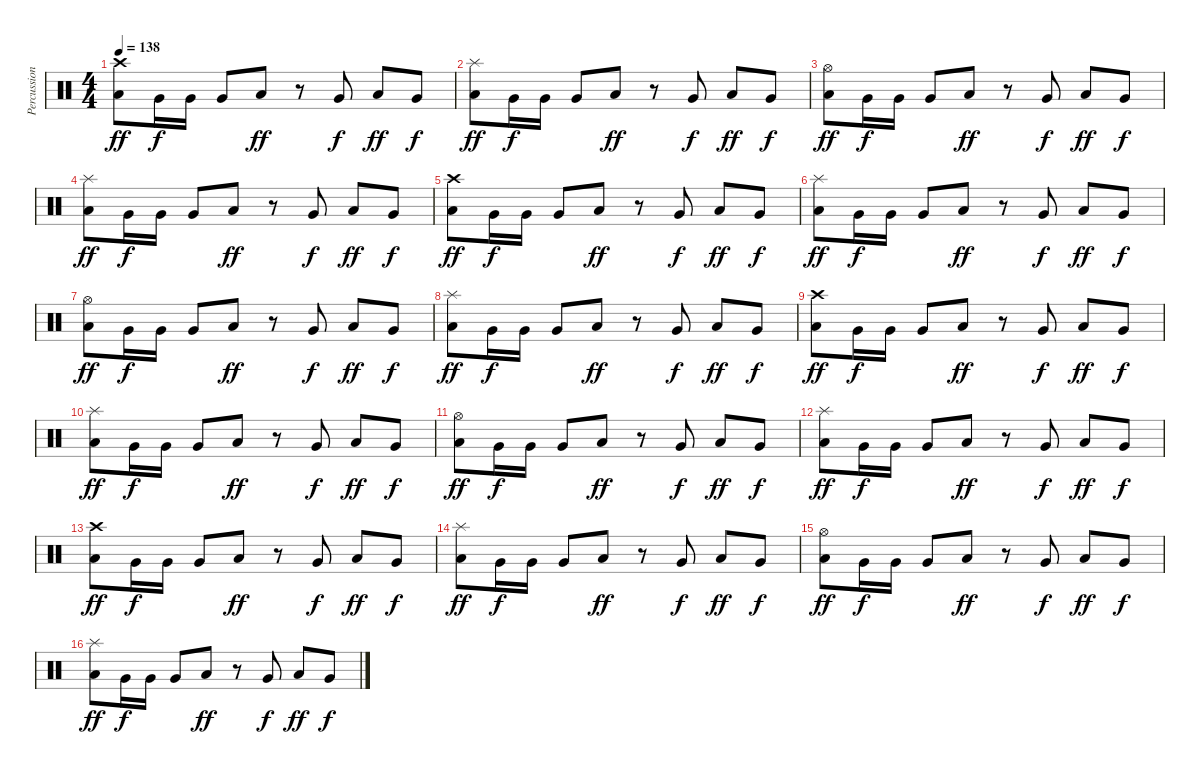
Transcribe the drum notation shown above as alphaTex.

\track ("Percussion" "Percussion") {instrument percussion}
\staff {score}
\articulation defaults
\ts (4 4)
\tempo 138
\clef neutral
\ks c
("Crash high (hit)" "Low Tom (hit)").8{dy ff} "Very Low Tom (hit)".16{dy f} "Very Low Tom (hit)".16 "Very Low Tom (hit)".8 "Low Tom (hit)".8{dy ff} r.8 "Very Low Tom (hit)".8{dy f} "Low Tom (hit)".8{dy ff} "Very Low Tom (hit)".8{dy f} |
("Splash (hit)" "Low Tom (hit)").8{dy ff} "Very Low Tom (hit)".16{dy f} "Very Low Tom (hit)".16 "Very Low Tom (hit)".8 "Low Tom (hit)".8{dy ff} r.8 "Very Low Tom (hit)".8{dy f} "Low Tom (hit)".8{dy ff} "Very Low Tom (hit)".8{dy f} |
("Hi-Hat (open)" "Low Tom (hit)").8{dy ff} "Very Low Tom (hit)".16{dy f} "Very Low Tom (hit)".16 "Very Low Tom (hit)".8 "Low Tom (hit)".8{dy ff} r.8 "Very Low Tom (hit)".8{dy f} "Low Tom (hit)".8{dy ff} "Very Low Tom (hit)".8{dy f} |
("Splash (hit)" "Low Tom (hit)").8{dy ff} "Very Low Tom (hit)".16{dy f} "Very Low Tom (hit)".16 "Very Low Tom (hit)".8 "Low Tom (hit)".8{dy ff} r.8 "Very Low Tom (hit)".8{dy f} "Low Tom (hit)".8{dy ff} "Very Low Tom (hit)".8{dy f} |
("Crash high (hit)" "Low Tom (hit)").8{dy ff} "Very Low Tom (hit)".16{dy f} "Very Low Tom (hit)".16 "Very Low Tom (hit)".8 "Low Tom (hit)".8{dy ff} r.8 "Very Low Tom (hit)".8{dy f} "Low Tom (hit)".8{dy ff} "Very Low Tom (hit)".8{dy f} |
("Splash (hit)" "Low Tom (hit)").8{dy ff} "Very Low Tom (hit)".16{dy f} "Very Low Tom (hit)".16 "Very Low Tom (hit)".8 "Low Tom (hit)".8{dy ff} r.8 "Very Low Tom (hit)".8{dy f} "Low Tom (hit)".8{dy ff} "Very Low Tom (hit)".8{dy f} |
("Hi-Hat (open)" "Low Tom (hit)").8{dy ff} "Very Low Tom (hit)".16{dy f} "Very Low Tom (hit)".16 "Very Low Tom (hit)".8 "Low Tom (hit)".8{dy ff} r.8 "Very Low Tom (hit)".8{dy f} "Low Tom (hit)".8{dy ff} "Very Low Tom (hit)".8{dy f} |
("Splash (hit)" "Low Tom (hit)").8{dy ff} "Very Low Tom (hit)".16{dy f} "Very Low Tom (hit)".16 "Very Low Tom (hit)".8 "Low Tom (hit)".8{dy ff} r.8 "Very Low Tom (hit)".8{dy f} "Low Tom (hit)".8{dy ff} "Very Low Tom (hit)".8{dy f} |
("Crash high (hit)" "Low Tom (hit)").8{dy ff} "Very Low Tom (hit)".16{dy f} "Very Low Tom (hit)".16 "Very Low Tom (hit)".8 "Low Tom (hit)".8{dy ff} r.8 "Very Low Tom (hit)".8{dy f} "Low Tom (hit)".8{dy ff} "Very Low Tom (hit)".8{dy f} |
("Splash (hit)" "Low Tom (hit)").8{dy ff} "Very Low Tom (hit)".16{dy f} "Very Low Tom (hit)".16 "Very Low Tom (hit)".8 "Low Tom (hit)".8{dy ff} r.8 "Very Low Tom (hit)".8{dy f} "Low Tom (hit)".8{dy ff} "Very Low Tom (hit)".8{dy f} |
("Hi-Hat (open)" "Low Tom (hit)").8{dy ff} "Very Low Tom (hit)".16{dy f} "Very Low Tom (hit)".16 "Very Low Tom (hit)".8 "Low Tom (hit)".8{dy ff} r.8 "Very Low Tom (hit)".8{dy f} "Low Tom (hit)".8{dy ff} "Very Low Tom (hit)".8{dy f} |
("Splash (hit)" "Low Tom (hit)").8{dy ff} "Very Low Tom (hit)".16{dy f} "Very Low Tom (hit)".16 "Very Low Tom (hit)".8 "Low Tom (hit)".8{dy ff} r.8 "Very Low Tom (hit)".8{dy f} "Low Tom (hit)".8{dy ff} "Very Low Tom (hit)".8{dy f} |
("Crash high (hit)" "Low Tom (hit)").8{dy ff} "Very Low Tom (hit)".16{dy f} "Very Low Tom (hit)".16 "Very Low Tom (hit)".8 "Low Tom (hit)".8{dy ff} r.8 "Very Low Tom (hit)".8{dy f} "Low Tom (hit)".8{dy ff} "Very Low Tom (hit)".8{dy f} |
("Splash (hit)" "Low Tom (hit)").8{dy ff} "Very Low Tom (hit)".16{dy f} "Very Low Tom (hit)".16 "Very Low Tom (hit)".8 "Low Tom (hit)".8{dy ff} r.8 "Very Low Tom (hit)".8{dy f} "Low Tom (hit)".8{dy ff} "Very Low Tom (hit)".8{dy f} |
("Hi-Hat (open)" "Low Tom (hit)").8{dy ff} "Very Low Tom (hit)".16{dy f} "Very Low Tom (hit)".16 "Very Low Tom (hit)".8 "Low Tom (hit)".8{dy ff} r.8 "Very Low Tom (hit)".8{dy f} "Low Tom (hit)".8{dy ff} "Very Low Tom (hit)".8{dy f} |
("Splash (hit)" "Low Tom (hit)").8{dy ff} "Very Low Tom (hit)".16{dy f} "Very Low Tom (hit)".16 "Very Low Tom (hit)".8 "Low Tom (hit)".8{dy ff} r.8 "Very Low Tom (hit)".8{dy f} "Low Tom (hit)".8{dy ff} "Very Low Tom (hit)".8{dy f}
